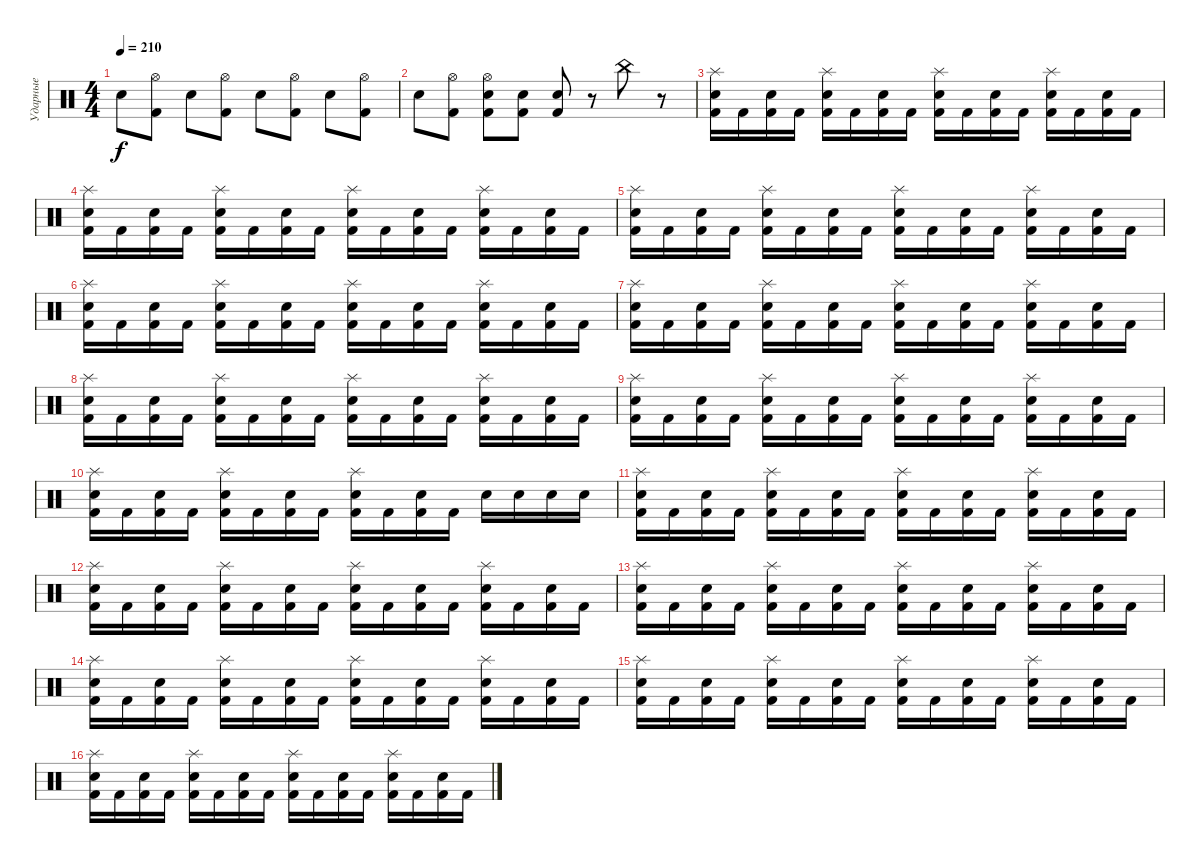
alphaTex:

\track ("Ударные" "Ударные") {instrument percussion}
\staff {score}
\articulation defaults
\ts (4 4)
\tempo 210
\clef neutral
\ks c "Electric Snare (hit)".8{dy f}
("Kick (hit) 2" "Hi-Hat (open)").8 "Electric Snare (hit)".8 ("Kick (hit) 2" "Hi-Hat (open)").8 "Electric Snare (hit)".8 ("Kick (hit) 2" "Hi-Hat (open)").8 "Electric Snare (hit)".8 ("Kick (hit) 2" "Hi-Hat (open)").8 |
"Electric Snare (hit)".8 ("Kick (hit) 2" "Hi-Hat (open)").8 ("Kick (hit) 2" "Electric Snare (hit)" "Hi-Hat (open)").8 ("Kick (hit) 2" "Electric Snare (hit)").8 ("Electric Snare (hit)" "Kick (hit) 2").8 r.8 "China (hit)".8 r.8 |
("Kick (hit) 2" "Electric Snare (hit)" "Splash (hit)").16 "Kick (hit) 2".16 ("Kick (hit) 2" "Electric Snare (hit)").16 "Kick (hit) 2".16 ("Kick (hit) 2" "Electric Snare (hit)" "Splash (hit)").16 "Kick (hit) 2".16 ("Kick (hit) 2" "Electric Snare (hit)").16 "Kick (hit) 2".16 ("Kick (hit) 2" "Electric Snare (hit)" "Splash (hit)").16 "Kick (hit) 2".16 ("Kick (hit) 2" "Electric Snare (hit)").16 "Kick (hit) 2".16 ("Kick (hit) 2" "Electric Snare (hit)" "Splash (hit)").16 "Kick (hit) 2".16 ("Kick (hit) 2" "Electric Snare (hit)").16 "Kick (hit) 2".16 |
("Kick (hit) 2" "Electric Snare (hit)" "Splash (hit)").16 "Kick (hit) 2".16 ("Kick (hit) 2" "Electric Snare (hit)").16 "Kick (hit) 2".16 ("Kick (hit) 2" "Electric Snare (hit)" "Splash (hit)").16 "Kick (hit) 2".16 ("Kick (hit) 2" "Electric Snare (hit)").16 "Kick (hit) 2".16 ("Kick (hit) 2" "Electric Snare (hit)" "Splash (hit)").16 "Kick (hit) 2".16 ("Kick (hit) 2" "Electric Snare (hit)").16 "Kick (hit) 2".16 ("Kick (hit) 2" "Electric Snare (hit)" "Splash (hit)").16 "Kick (hit) 2".16 ("Kick (hit) 2" "Electric Snare (hit)").16 "Kick (hit) 2".16 |
("Kick (hit) 2" "Electric Snare (hit)" "Splash (hit)").16 "Kick (hit) 2".16 ("Kick (hit) 2" "Electric Snare (hit)").16 "Kick (hit) 2".16 ("Kick (hit) 2" "Electric Snare (hit)" "Splash (hit)").16 "Kick (hit) 2".16 ("Kick (hit) 2" "Electric Snare (hit)").16 "Kick (hit) 2".16 ("Kick (hit) 2" "Electric Snare (hit)" "Splash (hit)").16 "Kick (hit) 2".16 ("Kick (hit) 2" "Electric Snare (hit)").16 "Kick (hit) 2".16 ("Kick (hit) 2" "Electric Snare (hit)" "Splash (hit)").16 "Kick (hit) 2".16 ("Kick (hit) 2" "Electric Snare (hit)").16 "Kick (hit) 2".16 |
("Kick (hit) 2" "Electric Snare (hit)" "Splash (hit)").16 "Kick (hit) 2".16 ("Kick (hit) 2" "Electric Snare (hit)").16 "Kick (hit) 2".16 ("Kick (hit) 2" "Electric Snare (hit)" "Splash (hit)").16 "Kick (hit) 2".16 ("Kick (hit) 2" "Electric Snare (hit)").16 "Kick (hit) 2".16 ("Kick (hit) 2" "Electric Snare (hit)" "Splash (hit)").16 "Kick (hit) 2".16 ("Kick (hit) 2" "Electric Snare (hit)").16 "Kick (hit) 2".16 ("Kick (hit) 2" "Electric Snare (hit)" "Splash (hit)").16 "Kick (hit) 2".16 ("Kick (hit) 2" "Electric Snare (hit)").16 "Kick (hit) 2".16 |
("Kick (hit) 2" "Electric Snare (hit)" "Splash (hit)").16 "Kick (hit) 2".16 ("Kick (hit) 2" "Electric Snare (hit)").16 "Kick (hit) 2".16 ("Kick (hit) 2" "Electric Snare (hit)" "Splash (hit)").16 "Kick (hit) 2".16 ("Kick (hit) 2" "Electric Snare (hit)").16 "Kick (hit) 2".16 ("Kick (hit) 2" "Electric Snare (hit)" "Splash (hit)").16 "Kick (hit) 2".16 ("Kick (hit) 2" "Electric Snare (hit)").16 "Kick (hit) 2".16 ("Kick (hit) 2" "Electric Snare (hit)" "Splash (hit)").16 "Kick (hit) 2".16 ("Kick (hit) 2" "Electric Snare (hit)").16 "Kick (hit) 2".16 |
("Kick (hit) 2" "Electric Snare (hit)" "Splash (hit)").16 "Kick (hit) 2".16 ("Kick (hit) 2" "Electric Snare (hit)").16 "Kick (hit) 2".16 ("Kick (hit) 2" "Electric Snare (hit)" "Splash (hit)").16 "Kick (hit) 2".16 ("Kick (hit) 2" "Electric Snare (hit)").16 "Kick (hit) 2".16 ("Kick (hit) 2" "Electric Snare (hit)" "Splash (hit)").16 "Kick (hit) 2".16 ("Kick (hit) 2" "Electric Snare (hit)").16 "Kick (hit) 2".16 ("Kick (hit) 2" "Electric Snare (hit)" "Splash (hit)").16 "Kick (hit) 2".16 ("Kick (hit) 2" "Electric Snare (hit)").16 "Kick (hit) 2".16 |
("Kick (hit) 2" "Electric Snare (hit)" "Splash (hit)").16 "Kick (hit) 2".16 ("Kick (hit) 2" "Electric Snare (hit)").16 "Kick (hit) 2".16 ("Kick (hit) 2" "Electric Snare (hit)" "Splash (hit)").16 "Kick (hit) 2".16 ("Kick (hit) 2" "Electric Snare (hit)").16 "Kick (hit) 2".16 ("Kick (hit) 2" "Electric Snare (hit)" "Splash (hit)").16 "Kick (hit) 2".16 ("Kick (hit) 2" "Electric Snare (hit)").16 "Kick (hit) 2".16 ("Kick (hit) 2" "Electric Snare (hit)" "Splash (hit)").16 "Kick (hit) 2".16 ("Kick (hit) 2" "Electric Snare (hit)").16 "Kick (hit) 2".16 |
("Kick (hit) 2" "Electric Snare (hit)" "Splash (hit)").16 "Kick (hit) 2".16 ("Kick (hit) 2" "Electric Snare (hit)").16 "Kick (hit) 2".16 ("Kick (hit) 2" "Electric Snare (hit)" "Splash (hit)").16 "Kick (hit) 2".16 ("Kick (hit) 2" "Electric Snare (hit)").16 "Kick (hit) 2".16 ("Kick (hit) 2" "Electric Snare (hit)" "Splash (hit)").16 "Kick (hit) 2".16 ("Kick (hit) 2" "Electric Snare (hit)").16 "Kick (hit) 2".16 "Electric Snare (hit)".16 "Electric Snare (hit)".16 "Electric Snare (hit)".16 "Electric Snare (hit)".16 |
("Kick (hit) 2" "Electric Snare (hit)" "Splash (hit)").16 "Kick (hit) 2".16 ("Kick (hit) 2" "Electric Snare (hit)").16 "Kick (hit) 2".16 ("Kick (hit) 2" "Electric Snare (hit)" "Splash (hit)").16 "Kick (hit) 2".16 ("Kick (hit) 2" "Electric Snare (hit)").16 "Kick (hit) 2".16 ("Kick (hit) 2" "Electric Snare (hit)" "Splash (hit)").16 "Kick (hit) 2".16 ("Kick (hit) 2" "Electric Snare (hit)").16 "Kick (hit) 2".16 ("Kick (hit) 2" "Electric Snare (hit)" "Splash (hit)").16 "Kick (hit) 2".16 ("Kick (hit) 2" "Electric Snare (hit)").16 "Kick (hit) 2".16 |
("Kick (hit) 2" "Electric Snare (hit)" "Splash (hit)").16 "Kick (hit) 2".16 ("Kick (hit) 2" "Electric Snare (hit)").16 "Kick (hit) 2".16 ("Kick (hit) 2" "Electric Snare (hit)" "Splash (hit)").16 "Kick (hit) 2".16 ("Kick (hit) 2" "Electric Snare (hit)").16 "Kick (hit) 2".16 ("Kick (hit) 2" "Electric Snare (hit)" "Splash (hit)").16 "Kick (hit) 2".16 ("Kick (hit) 2" "Electric Snare (hit)").16 "Kick (hit) 2".16 ("Kick (hit) 2" "Electric Snare (hit)" "Splash (hit)").16 "Kick (hit) 2".16 ("Kick (hit) 2" "Electric Snare (hit)").16 "Kick (hit) 2".16 |
("Kick (hit) 2" "Electric Snare (hit)" "Splash (hit)").16 "Kick (hit) 2".16 ("Kick (hit) 2" "Electric Snare (hit)").16 "Kick (hit) 2".16 ("Kick (hit) 2" "Electric Snare (hit)" "Splash (hit)").16 "Kick (hit) 2".16 ("Kick (hit) 2" "Electric Snare (hit)").16 "Kick (hit) 2".16 ("Kick (hit) 2" "Electric Snare (hit)" "Splash (hit)").16 "Kick (hit) 2".16 ("Kick (hit) 2" "Electric Snare (hit)").16 "Kick (hit) 2".16 ("Kick (hit) 2" "Electric Snare (hit)" "Splash (hit)").16 "Kick (hit) 2".16 ("Kick (hit) 2" "Electric Snare (hit)").16 "Kick (hit) 2".16 |
("Kick (hit) 2" "Electric Snare (hit)" "Splash (hit)").16 "Kick (hit) 2".16 ("Kick (hit) 2" "Electric Snare (hit)").16 "Kick (hit) 2".16 ("Kick (hit) 2" "Electric Snare (hit)" "Splash (hit)").16 "Kick (hit) 2".16 ("Kick (hit) 2" "Electric Snare (hit)").16 "Kick (hit) 2".16 ("Kick (hit) 2" "Electric Snare (hit)" "Splash (hit)").16 "Kick (hit) 2".16 ("Kick (hit) 2" "Electric Snare (hit)").16 "Kick (hit) 2".16 ("Kick (hit) 2" "Electric Snare (hit)" "Splash (hit)").16 "Kick (hit) 2".16 ("Kick (hit) 2" "Electric Snare (hit)").16 "Kick (hit) 2".16 |
("Kick (hit) 2" "Electric Snare (hit)" "Splash (hit)").16 "Kick (hit) 2".16 ("Kick (hit) 2" "Electric Snare (hit)").16 "Kick (hit) 2".16 ("Kick (hit) 2" "Electric Snare (hit)" "Splash (hit)").16 "Kick (hit) 2".16 ("Kick (hit) 2" "Electric Snare (hit)").16 "Kick (hit) 2".16 ("Kick (hit) 2" "Electric Snare (hit)" "Splash (hit)").16 "Kick (hit) 2".16 ("Kick (hit) 2" "Electric Snare (hit)").16 "Kick (hit) 2".16 ("Kick (hit) 2" "Electric Snare (hit)" "Splash (hit)").16 "Kick (hit) 2".16 ("Kick (hit) 2" "Electric Snare (hit)").16 "Kick (hit) 2".16 |
("Kick (hit) 2" "Electric Snare (hit)" "Splash (hit)").16 "Kick (hit) 2".16 ("Kick (hit) 2" "Electric Snare (hit)").16 "Kick (hit) 2".16 ("Kick (hit) 2" "Electric Snare (hit)" "Splash (hit)").16 "Kick (hit) 2".16 ("Kick (hit) 2" "Electric Snare (hit)").16 "Kick (hit) 2".16 ("Kick (hit) 2" "Electric Snare (hit)" "Splash (hit)").16 "Kick (hit) 2".16 ("Kick (hit) 2" "Electric Snare (hit)").16 "Kick (hit) 2".16 ("Kick (hit) 2" "Electric Snare (hit)" "Splash (hit)").16 "Kick (hit) 2".16 ("Kick (hit) 2" "Electric Snare (hit)").16 "Kick (hit) 2".16
